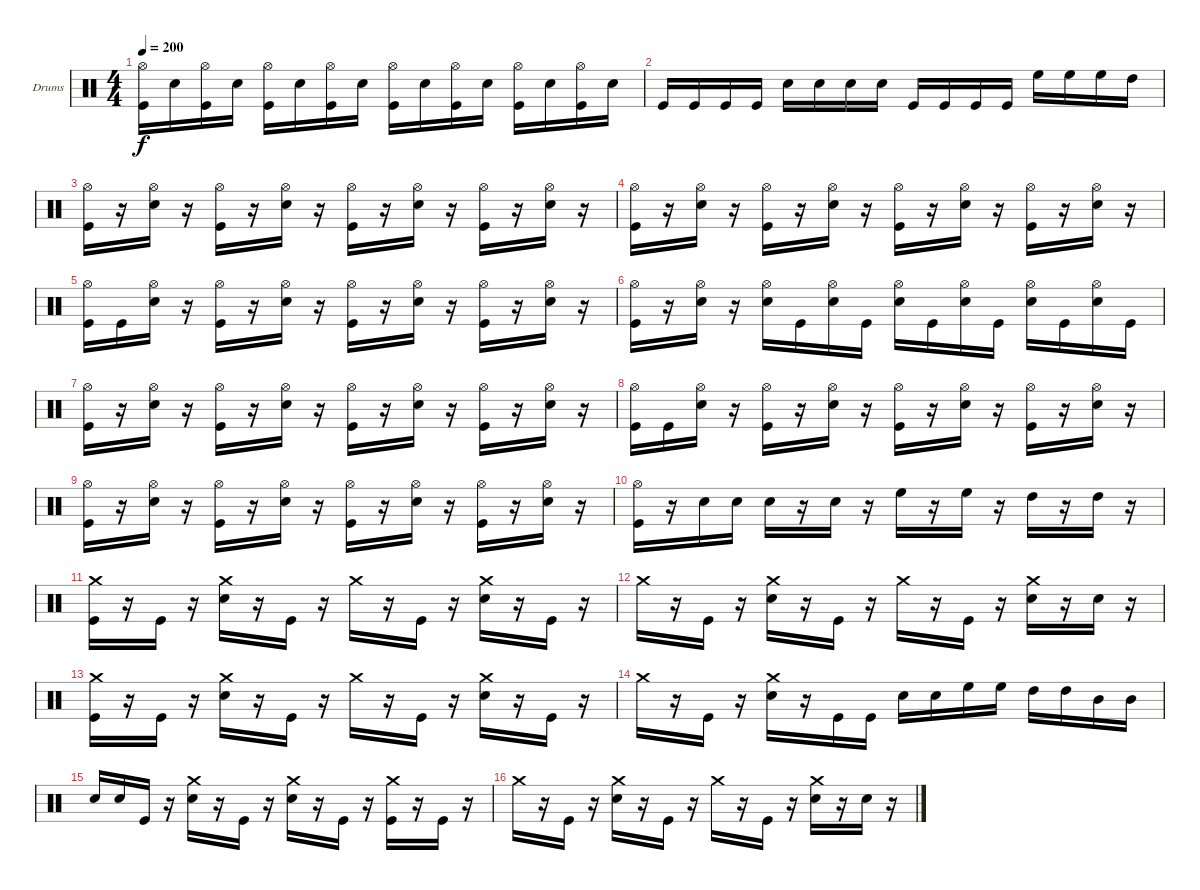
\defaultSystemsLayout 4
\bracketExtendMode groupsimilarinstruments
\firstSystemTrackNameOrientation horizontal
\otherSystemsTrackNameOrientation horizontal
\track ("Drumkit" "Drums") {instrument percussion}
\staff {score}
\articulation defaults
\ts (4 4)
\tempo 200
\clef neutral
\ks c
("Kick (hit)" "Hi-Hat (open)").16{dy f} "Snare (hit) 2".16 ("Kick (hit)" "Hi-Hat (open)").16 "Snare (hit) 2".16 ("Kick (hit)" "Hi-Hat (open)").16 "Snare (hit) 2".16 ("Kick (hit)" "Hi-Hat (open)").16 "Snare (hit) 2".16 ("Kick (hit)" "Hi-Hat (open)").16 "Snare (hit) 2".16 ("Kick (hit)" "Hi-Hat (open)").16 "Snare (hit) 2".16 ("Kick (hit)" "Hi-Hat (open)").16 "Snare (hit) 2".16 ("Kick (hit)" "Hi-Hat (open)").16 "Snare (hit) 2".16 |
"Kick (hit)".16 "Kick (hit)".16 "Kick (hit)".16 "Kick (hit)".16 "Snare (hit) 2".16 "Snare (hit) 2".16 "Snare (hit) 2".16 "Snare (hit) 2".16 "Kick (hit)".16 "Kick (hit)".16 "Kick (hit)".16 "Kick (hit)".16 "High Floor Tom (hit)".16 "High Floor Tom (hit)".16 "High Floor Tom (hit)".16 "High Tom (hit)".16 |
("Kick (hit)" "Hi-Hat (open)").16 r.16 ("Snare (hit) 2" "Hi-Hat (open)").16 r.16 ("Kick (hit)" "Hi-Hat (open)").16 r.16 ("Snare (hit) 2" "Hi-Hat (open)").16 r.16 ("Kick (hit)" "Hi-Hat (open)").16 r.16 ("Snare (hit) 2" "Hi-Hat (open)").16 r.16 ("Kick (hit)" "Hi-Hat (open)").16 r.16 ("Snare (hit) 2" "Hi-Hat (open)").16 r.16 |
("Kick (hit)" "Hi-Hat (open)").16 r.16 ("Snare (hit) 2" "Hi-Hat (open)").16 r.16 ("Kick (hit)" "Hi-Hat (open)").16 r.16 ("Snare (hit) 2" "Hi-Hat (open)").16 r.16 ("Kick (hit)" "Hi-Hat (open)").16 r.16 ("Snare (hit) 2" "Hi-Hat (open)").16 r.16 ("Kick (hit)" "Hi-Hat (open)").16 r.16 ("Snare (hit) 2" "Hi-Hat (open)").16 r.16 |
("Kick (hit)" "Hi-Hat (open)").16 "Kick (hit)".16 ("Snare (hit) 2" "Hi-Hat (open)").16 r.16 ("Kick (hit)" "Hi-Hat (open)").16 r.16 ("Snare (hit) 2" "Hi-Hat (open)").16 r.16 ("Kick (hit)" "Hi-Hat (open)").16 r.16 ("Snare (hit) 2" "Hi-Hat (open)").16 r.16 ("Kick (hit)" "Hi-Hat (open)").16 r.16 ("Snare (hit) 2" "Hi-Hat (open)").16 r.16 |
("Kick (hit)" "Hi-Hat (open)").16 r.16 ("Snare (hit) 2" "Hi-Hat (open)").16 r.16 ("Hi-Hat (open)" "Snare (hit) 2").16 "Kick (hit)".16 ("Snare (hit) 2" "Hi-Hat (open)").16 "Kick (hit)".16 ("Hi-Hat (open)" "Snare (hit) 2").16 "Kick (hit)".16 ("Snare (hit) 2" "Hi-Hat (open)").16 "Kick (hit)".16 ("Hi-Hat (open)" "Snare (hit) 2").16 "Kick (hit)".16 ("Snare (hit) 2" "Hi-Hat (open)").16 "Kick (hit)".16 |
("Kick (hit)" "Hi-Hat (open)").16 r.16 ("Snare (hit) 2" "Hi-Hat (open)").16 r.16 ("Kick (hit)" "Hi-Hat (open)").16 r.16 ("Snare (hit) 2" "Hi-Hat (open)").16 r.16 ("Kick (hit)" "Hi-Hat (open)").16 r.16 ("Snare (hit) 2" "Hi-Hat (open)").16 r.16 ("Kick (hit)" "Hi-Hat (open)").16 r.16 ("Snare (hit) 2" "Hi-Hat (open)").16 r.16 |
("Kick (hit)" "Hi-Hat (open)").16 "Kick (hit)".16 ("Snare (hit) 2" "Hi-Hat (open)").16 r.16 ("Kick (hit)" "Hi-Hat (open)").16 r.16 ("Snare (hit) 2" "Hi-Hat (open)").16 r.16 ("Kick (hit)" "Hi-Hat (open)").16 r.16 ("Snare (hit) 2" "Hi-Hat (open)").16 r.16 ("Kick (hit)" "Hi-Hat (open)").16 r.16 ("Snare (hit) 2" "Hi-Hat (open)").16 r.16 |
("Kick (hit)" "Hi-Hat (open)").16 r.16 ("Snare (hit) 2" "Hi-Hat (open)").16 r.16 ("Kick (hit)" "Hi-Hat (open)").16 r.16 ("Snare (hit) 2" "Hi-Hat (open)").16 r.16 ("Kick (hit)" "Hi-Hat (open)").16 r.16 ("Snare (hit) 2" "Hi-Hat (open)").16 r.16 ("Kick (hit)" "Hi-Hat (open)").16 r.16 ("Snare (hit) 2" "Hi-Hat (open)").16 r.16 |
("Kick (hit)" "Hi-Hat (open)").16 r.16 "Snare (hit) 2".16 "Snare (hit) 2".16 "Snare (hit) 2".16 r.16 "Snare (hit) 2".16 r.16 "High Floor Tom (hit)".16 r.16 "High Floor Tom (hit)".16 r.16 "High Tom (hit)".16 r.16 "High Tom (hit)".16 r.16 |
("Kick (hit)" "Crash medium (hit)").16 r.16 "Kick (hit)".16 r.16 ("Snare (hit) 2" "Crash medium (hit)").16 r.16 "Kick (hit)".16 r.16 "Crash medium (hit)".16 r.16 "Kick (hit)".16 r.16 ("Crash medium (hit)" "Snare (hit) 2").16 r.16 "Kick (hit)".16 r.16 |
"Crash medium (hit)".16 r.16 "Kick (hit)".16 r.16 ("Crash medium (hit)" "Snare (hit) 2").16 r.16 "Kick (hit)".16 r.16 "Crash medium (hit)".16 r.16 "Kick (hit)".16 r.16 ("Snare (hit) 2" "Crash medium (hit)").16 r.16 "Snare (hit) 2".16 r.16 |
("Kick (hit)" "Crash medium (hit)").16 r.16 "Kick (hit)".16 r.16 ("Crash medium (hit)" "Snare (hit) 2").16 r.16 "Kick (hit)".16 r.16 "Crash medium (hit)".16 r.16 "Kick (hit)".16 r.16 ("Snare (hit) 2" "Crash medium (hit)").16 r.16 "Kick (hit)".16 r.16 |
"Crash medium (hit)".16 r.16 "Kick (hit)".16 r.16 ("Snare (hit) 2" "Crash medium (hit)").16 r.16 "Kick (hit)".16 "Kick (hit)".16 "Snare (hit) 2".16 "Snare (hit) 2".16 "High Floor Tom (hit)".16 "High Floor Tom (hit)".16 "High Tom (hit)".16 "High Tom (hit)".16 "Mid Tom (hit)".16 "Mid Tom (hit)".16 |
"Snare (hit) 2".16 "Snare (hit) 2".16 "Kick (hit)".16 r.16 ("Snare (hit) 2" "Crash medium (hit)").16 r.16 "Kick (hit)".16 r.16 ("Snare (hit) 2" "Crash medium (hit)").16 r.16 "Kick (hit)".16 r.16 ("Kick (hit)" "Crash medium (hit)").16 r.16 "Kick (hit)".16 r.16 |
"Crash medium (hit)".16 r.16 "Kick (hit)".16 r.16 ("Snare (hit) 2" "Crash medium (hit)").16 r.16 "Kick (hit)".16 r.16 "Crash medium (hit)".16 r.16 "Kick (hit)".16 r.16 ("Snare (hit) 2" "Crash medium (hit)").16 r.16 "Snare (hit) 2".16 r.16
